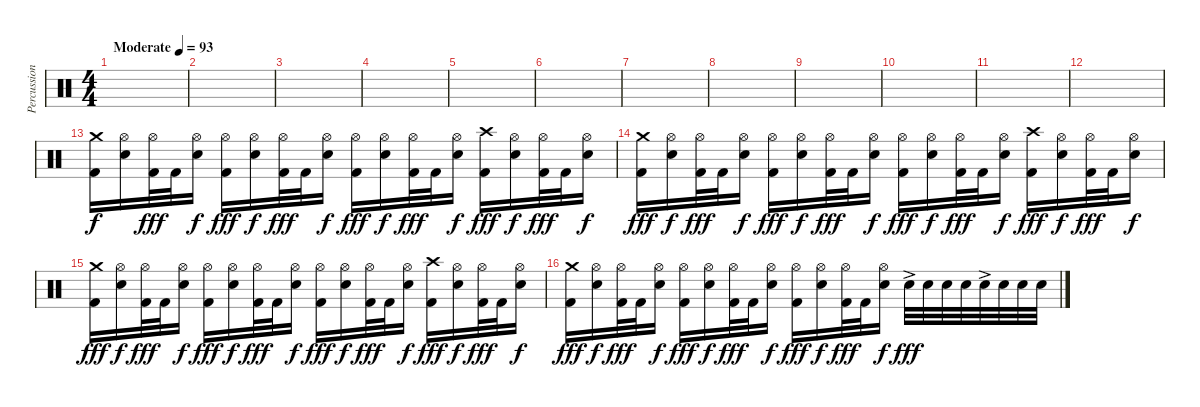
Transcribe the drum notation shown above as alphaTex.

\track ("Percussion" "Percussion") {instrument percussion}
\staff {score}
\articulation defaults
\ts (4 4)
\tempo (93 "Moderate")
\clef neutral
\ks c
|
|
|
|
|
|
|
|
|
|
|
|
("Crash medium (hit)" "Kick (hit) 2").16 ("Hi-Hat (open)" "Snare (hit) 2").16{dy f} ("Hi-Hat (open)" "Kick (hit) 2").32{dy fff} "Kick (hit) 2".32 ("Hi-Hat (open)" "Snare (hit) 2").16{dy f} ("Hi-Hat (open)" "Kick (hit) 2").16{dy fff} ("Hi-Hat (open)" "Snare (hit) 2").16{dy f} ("Hi-Hat (open)" "Kick (hit) 2").32{dy fff} "Kick (hit) 2".32 ("Hi-Hat (open)" "Snare (hit) 2").16{dy f} ("Hi-Hat (open)" "Kick (hit) 2").16{dy fff} ("Hi-Hat (open)" "Snare (hit) 2").16{dy f} ("Hi-Hat (open)" "Kick (hit) 2").32{dy fff} "Kick (hit) 2".32 ("Hi-Hat (open)" "Snare (hit) 2").16{dy f} ("Crash high (hit)" "Kick (hit) 2").16{dy fff} ("Hi-Hat (open)" "Snare (hit) 2").16{dy f} ("Hi-Hat (open)" "Kick (hit) 2").32{dy fff} "Kick (hit) 2".32 ("Hi-Hat (open)" "Snare (hit) 2").16{dy f} |
("Crash medium (hit)" "Kick (hit) 2").16{dy fff} ("Hi-Hat (open)" "Snare (hit) 2").16{dy f} ("Hi-Hat (open)" "Kick (hit) 2").32{dy fff} "Kick (hit) 2".32 ("Hi-Hat (open)" "Snare (hit) 2").16{dy f} ("Hi-Hat (open)" "Kick (hit) 2").16{dy fff} ("Hi-Hat (open)" "Snare (hit) 2").16{dy f} ("Hi-Hat (open)" "Kick (hit) 2").32{dy fff} "Kick (hit) 2".32 ("Hi-Hat (open)" "Snare (hit) 2").16{dy f} ("Hi-Hat (open)" "Kick (hit) 2").16{dy fff} ("Hi-Hat (open)" "Snare (hit) 2").16{dy f} ("Hi-Hat (open)" "Kick (hit) 2").32{dy fff} "Kick (hit) 2".32 ("Hi-Hat (open)" "Snare (hit) 2").16{dy f} ("Crash high (hit)" "Kick (hit) 2").16{dy fff} ("Hi-Hat (open)" "Snare (hit) 2").16{dy f} ("Hi-Hat (open)" "Kick (hit) 2").32{dy fff} "Kick (hit) 2".32 ("Hi-Hat (open)" "Snare (hit) 2").16{dy f} |
("Crash medium (hit)" "Kick (hit) 2").16{dy fff} ("Hi-Hat (open)" "Snare (hit) 2").16{dy f} ("Hi-Hat (open)" "Kick (hit) 2").32{dy fff} "Kick (hit) 2".32 ("Hi-Hat (open)" "Snare (hit) 2").16{dy f} ("Hi-Hat (open)" "Kick (hit) 2").16{dy fff} ("Hi-Hat (open)" "Snare (hit) 2").16{dy f} ("Hi-Hat (open)" "Kick (hit) 2").32{dy fff} "Kick (hit) 2".32 ("Hi-Hat (open)" "Snare (hit) 2").16{dy f} ("Hi-Hat (open)" "Kick (hit) 2").16{dy fff} ("Hi-Hat (open)" "Snare (hit) 2").16{dy f} ("Hi-Hat (open)" "Kick (hit) 2").32{dy fff} "Kick (hit) 2".32 ("Hi-Hat (open)" "Snare (hit) 2").16{dy f} ("Crash high (hit)" "Kick (hit) 2").16{dy fff} ("Hi-Hat (open)" "Snare (hit) 2").16{dy f} ("Hi-Hat (open)" "Kick (hit) 2").32{dy fff} "Kick (hit) 2".32 ("Hi-Hat (open)" "Snare (hit) 2").16{dy f} |
("Crash medium (hit)" "Kick (hit) 2").16{dy fff} ("Hi-Hat (open)" "Snare (hit) 2").16{dy f} ("Hi-Hat (open)" "Kick (hit) 2").32{dy fff} "Kick (hit) 2".32 ("Hi-Hat (open)" "Snare (hit) 2").16{dy f} ("Hi-Hat (open)" "Kick (hit) 2").16{dy fff} ("Hi-Hat (open)" "Snare (hit) 2").16{dy f} ("Hi-Hat (open)" "Kick (hit) 2").32{dy fff} "Kick (hit) 2".32 ("Hi-Hat (open)" "Snare (hit) 2").16{dy f} ("Hi-Hat (open)" "Kick (hit) 2").16{dy fff} ("Hi-Hat (open)" "Snare (hit) 2").16{dy f} ("Hi-Hat (open)" "Kick (hit) 2").32{dy fff} "Kick (hit) 2".32 ("Hi-Hat (open)" "Snare (hit) 2").16{dy f} "Snare (hit) 2"{ac}.32{dy fff} "Snare (hit) 2".32 "Snare (hit) 2".32 "Snare (hit) 2".32 "Snare (hit) 2"{ac}.32 "Snare (hit) 2".32 "Snare (hit) 2".32 "Snare (hit) 2".32
